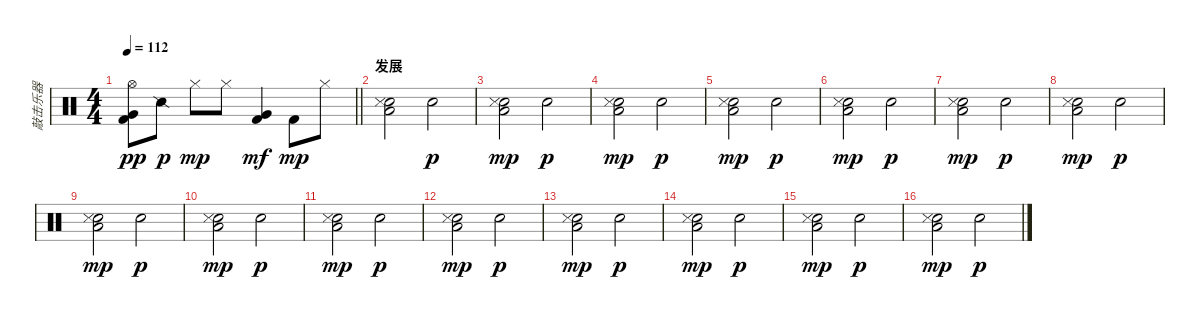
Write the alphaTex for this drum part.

\track ("敲击乐器" "敲击乐器") {instrument percussion}
\staff {score}
\articulation defaults
\ts (4 4)
\tempo 112
\clef neutral
\barLineRight lightlight
\ks c
("Very Low Tom (hit)" "Kick (hit) 2" "Hi-Hat (open)").8{dy pp} "Snare (side stick) 2".8{dy p} "Hi-Hat (closed)".8{dy mp} "Hi-Hat (closed)".8 ("Very Low Tom (hit)" "Kick (hit) 2").4{dy mf} "Kick (hit) 2".8{dy mp} "Hi-Hat (closed)".8 |
\section ("" "发展")
("Snare (hit) 2" "Snare (side stick) 3" "Low Floor Tom (hit)").2 "Electric Snare (hit)".2{dy p} |
("Snare (hit) 2" "Snare (side stick) 3" "Low Floor Tom (hit)").2{dy mp} "Electric Snare (hit)".2{dy p} |
("Snare (hit) 2" "Snare (side stick) 3" "Low Floor Tom (hit)").2{dy mp} "Electric Snare (hit)".2{dy p} |
("Snare (hit) 2" "Snare (side stick) 3" "Low Floor Tom (hit)").2{dy mp} "Electric Snare (hit)".2{dy p} |
("Snare (hit) 2" "Snare (side stick) 3" "Low Floor Tom (hit)").2{dy mp} "Electric Snare (hit)".2{dy p} |
("Snare (hit) 2" "Snare (side stick) 3" "Low Floor Tom (hit)").2{dy mp} "Electric Snare (hit)".2{dy p} |
("Snare (hit) 2" "Snare (side stick) 3" "Low Floor Tom (hit)").2{dy mp} "Electric Snare (hit)".2{dy p} |
("Snare (hit) 2" "Snare (side stick) 3" "Low Floor Tom (hit)").2{dy mp} "Electric Snare (hit)".2{dy p} |
("Snare (hit) 2" "Snare (side stick) 3" "Low Floor Tom (hit)").2{dy mp} "Electric Snare (hit)".2{dy p} |
("Snare (hit) 2" "Snare (side stick) 3" "Low Floor Tom (hit)").2{dy mp} "Electric Snare (hit)".2{dy p} |
("Snare (hit) 2" "Snare (side stick) 3" "Low Floor Tom (hit)").2{dy mp} "Electric Snare (hit)".2{dy p} |
("Snare (hit) 2" "Snare (side stick) 3" "Low Floor Tom (hit)").2{dy mp} "Electric Snare (hit)".2{dy p} |
("Snare (hit) 2" "Snare (side stick) 3" "Low Floor Tom (hit)").2{dy mp} "Electric Snare (hit)".2{dy p} |
("Snare (hit) 2" "Snare (side stick) 3" "Low Floor Tom (hit)").2{dy mp} "Electric Snare (hit)".2{dy p} |
("Snare (hit) 2" "Snare (side stick) 3" "Low Floor Tom (hit)").2{dy mp} "Electric Snare (hit)".2{dy p}
